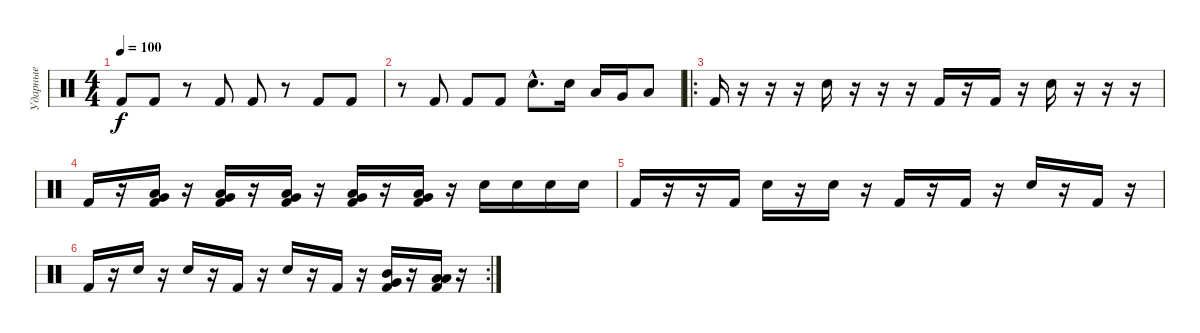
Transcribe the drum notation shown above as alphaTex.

\track ("Ударные" "Ударные") {instrument percussion}
\staff {score}
\articulation defaults
\ts (4 4)
\tempo 100
\clef neutral
\ks c "Kick (hit) 2".8{dy f} "Kick (hit) 2".8
r.8 "Kick (hit) 2".8 "Kick (hit) 2".8 r.8 "Kick (hit) 2".8 "Kick (hit) 2".8 |
r.8 "Kick (hit) 2".8 "Kick (hit) 2".8 "Kick (hit) 2".8 "Snare (hit) 2"{hac}.8{d} "Snare (hit) 2".16 "Low Tom (hit)".16 "Very Low Tom (hit)".16 "Low Floor Tom (hit)".8 |
\ro "Kick (hit) 2".16
r.16 r.16 r.16 "Snare (hit) 2".16 r.16 r.16 r.16 "Kick (hit) 2".16 r.16 "Kick (hit) 2".16 r.16 "Snare (hit) 2".16 r.16 r.16 r.16 |
"Kick (hit) 2".16 r.16 ("Very Low Tom (hit)" "Low Floor Tom (hit)" "Kick (hit) 2").16 r.16 ("Very Low Tom (hit)" "Low Floor Tom (hit)" "Kick (hit) 2").16 r.16 ("Very Low Tom (hit)" "Low Floor Tom (hit)" "Kick (hit) 2").16 r.16 ("Very Low Tom (hit)" "Low Floor Tom (hit)" "Kick (hit) 2").16 r.16 ("Very Low Tom (hit)" "Low Floor Tom (hit)" "Kick (hit) 2").16 r.16 "Snare (hit) 2".16 "Snare (hit) 2".16 "Snare (hit) 2".16 "Snare (hit) 2".16 |
"Kick (hit) 2".16 r.16 r.16 "Kick (hit) 2".16 "Snare (hit) 2".16 r.16 "Snare (hit) 2".16 r.16 "Kick (hit) 2".16 r.16 "Kick (hit) 2".16 r.16 "Snare (hit) 2".16 r.16 "Kick (hit) 2".16 r.16 |
\rc 2 "Kick (hit) 2".16
r.16 "Snare (hit) 2".16 r.16 "Snare (hit) 2".16 r.16 "Kick (hit) 2".16 r.16 "Snare (hit) 2".16 r.16 "Kick (hit) 2".16 r.16 ("Mid Tom (hit)" "Very Low Tom (hit)" "Kick (hit) 2").16 r.16 ("Low Tom (hit)" "Low Floor Tom (hit)" "Kick (hit) 2").16 r.16
